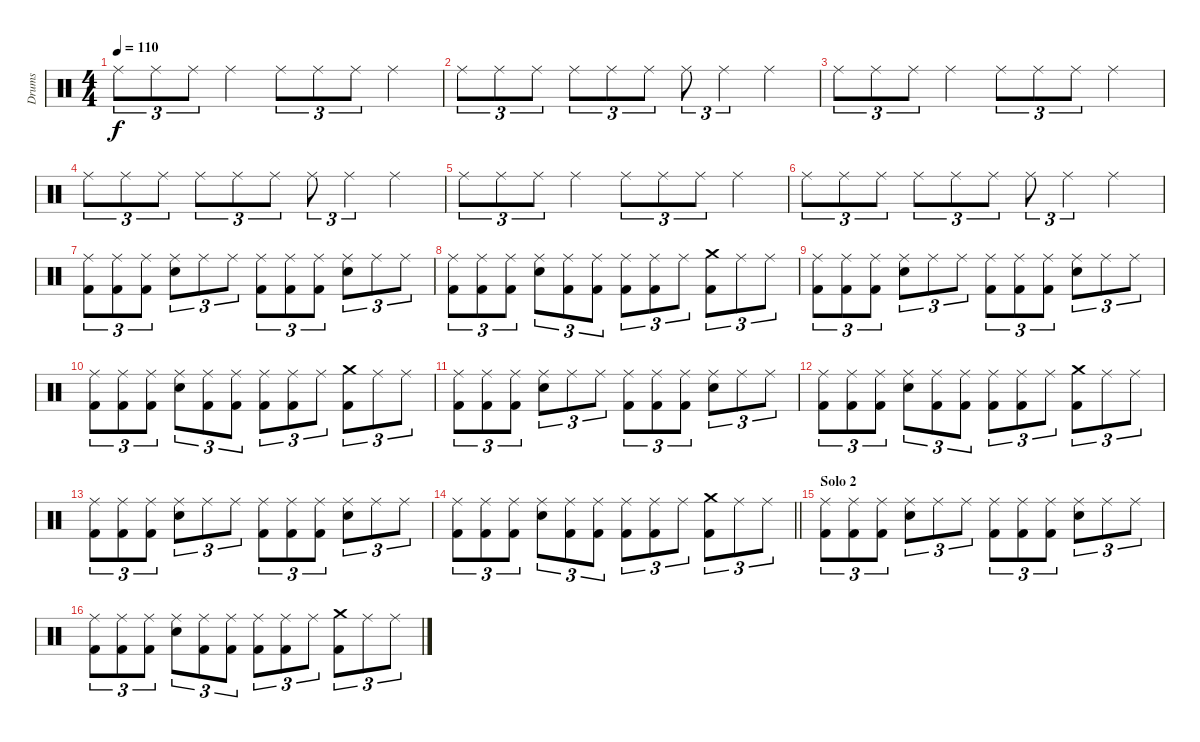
\track ("Drums" "Drums") {instrument percussion}
\staff {score}
\articulation defaults
\ts (4 4)
\tempo 110
\clef neutral
\ks c "Ride (middle)".8{tu (3 2) dy f} "Ride (middle)".8{tu (3 2)} "Ride (middle)".8{tu (3 2)} "Ride (middle)".4 "Ride (middle)".8{tu (3 2)} "Ride (middle)".8{tu (3 2)} "Ride (middle)".8{tu (3 2)} "Ride (middle)".4
|
"Ride (middle)".8{tu (3 2)} "Ride (middle)".8{tu (3 2)} "Ride (middle)".8{tu (3 2)} "Ride (middle)".8{tu (3 2)} "Ride (middle)".8{tu (3 2)} "Ride (middle)".8{tu (3 2)} "Ride (middle)".8{tu (3 2)} "Ride (middle)".4{tu (3 2)} "Ride (middle)".4 |
"Ride (middle)".8{tu (3 2)} "Ride (middle)".8{tu (3 2)} "Ride (middle)".8{tu (3 2)} "Ride (middle)".4 "Ride (middle)".8{tu (3 2)} "Ride (middle)".8{tu (3 2)} "Ride (middle)".8{tu (3 2)} "Ride (middle)".4 |
"Ride (middle)".8{tu (3 2)} "Ride (middle)".8{tu (3 2)} "Ride (middle)".8{tu (3 2)} "Ride (middle)".8{tu (3 2)} "Ride (middle)".8{tu (3 2)} "Ride (middle)".8{tu (3 2)} "Ride (middle)".8{tu (3 2)} "Ride (middle)".4{tu (3 2)} "Ride (middle)".4 |
"Ride (middle)".8{tu (3 2)} "Ride (middle)".8{tu (3 2)} "Ride (middle)".8{tu (3 2)} "Ride (middle)".4 "Ride (middle)".8{tu (3 2)} "Ride (middle)".8{tu (3 2)} "Ride (middle)".8{tu (3 2)} "Ride (middle)".4 |
"Ride (middle)".8{tu (3 2)} "Ride (middle)".8{tu (3 2)} "Ride (middle)".8{tu (3 2)} "Ride (middle)".8{tu (3 2)} "Ride (middle)".8{tu (3 2)} "Ride (middle)".8{tu (3 2)} "Ride (middle)".8{tu (3 2)} "Ride (middle)".4{tu (3 2)} "Ride (middle)".4 |
("Ride (middle)" "Kick (hit) 2").8{tu (3 2)} ("Ride (middle)" "Kick (hit) 2").8{tu (3 2)} ("Ride (middle)" "Kick (hit) 2").8{tu (3 2)} ("Ride (middle)" "Electric Snare (hit)").8{tu (3 2)} "Ride (middle)".8{tu (3 2)} "Ride (middle)".8{tu (3 2)} ("Ride (middle)" "Kick (hit) 2").8{tu (3 2)} ("Ride (middle)" "Kick (hit) 2").8{tu (3 2)} ("Ride (middle)" "Kick (hit) 2").8{tu (3 2)} ("Ride (middle)" "Electric Snare (hit)").8{tu (3 2)} "Ride (middle)".8{tu (3 2)} "Ride (middle)".8{tu (3 2)} |
("Ride (middle)" "Kick (hit) 2").8{tu (3 2)} ("Ride (middle)" "Kick (hit) 2").8{tu (3 2)} ("Ride (middle)" "Kick (hit) 2").8{tu (3 2)} ("Ride (middle)" "Electric Snare (hit)").8{tu (3 2)} ("Ride (middle)" "Kick (hit) 2").8{tu (3 2)} ("Ride (middle)" "Kick (hit) 2").8{tu (3 2)} ("Ride (middle)" "Kick (hit) 2").8{tu (3 2)} ("Ride (middle)" "Kick (hit) 2").8{tu (3 2)} "Ride (middle)".8{tu (3 2)} ("Crash medium (hit)" "Kick (hit) 2").8{tu (3 2)} "Ride (middle)".8{tu (3 2)} "Ride (middle)".8{tu (3 2)} |
("Ride (middle)" "Kick (hit) 2").8{tu (3 2)} ("Ride (middle)" "Kick (hit) 2").8{tu (3 2)} ("Ride (middle)" "Kick (hit) 2").8{tu (3 2)} ("Ride (middle)" "Electric Snare (hit)").8{tu (3 2)} "Ride (middle)".8{tu (3 2)} "Ride (middle)".8{tu (3 2)} ("Ride (middle)" "Kick (hit) 2").8{tu (3 2)} ("Ride (middle)" "Kick (hit) 2").8{tu (3 2)} ("Ride (middle)" "Kick (hit) 2").8{tu (3 2)} ("Ride (middle)" "Electric Snare (hit)").8{tu (3 2)} "Ride (middle)".8{tu (3 2)} "Ride (middle)".8{tu (3 2)} |
("Ride (middle)" "Kick (hit) 2").8{tu (3 2)} ("Ride (middle)" "Kick (hit) 2").8{tu (3 2)} ("Ride (middle)" "Kick (hit) 2").8{tu (3 2)} ("Ride (middle)" "Electric Snare (hit)").8{tu (3 2)} ("Ride (middle)" "Kick (hit) 2").8{tu (3 2)} ("Ride (middle)" "Kick (hit) 2").8{tu (3 2)} ("Ride (middle)" "Kick (hit) 2").8{tu (3 2)} ("Ride (middle)" "Kick (hit) 2").8{tu (3 2)} "Ride (middle)".8{tu (3 2)} ("Crash medium (hit)" "Kick (hit) 2").8{tu (3 2)} "Ride (middle)".8{tu (3 2)} "Ride (middle)".8{tu (3 2)} |
("Ride (middle)" "Kick (hit) 2").8{tu (3 2)} ("Ride (middle)" "Kick (hit) 2").8{tu (3 2)} ("Ride (middle)" "Kick (hit) 2").8{tu (3 2)} ("Ride (middle)" "Electric Snare (hit)").8{tu (3 2)} "Ride (middle)".8{tu (3 2)} "Ride (middle)".8{tu (3 2)} ("Ride (middle)" "Kick (hit) 2").8{tu (3 2)} ("Ride (middle)" "Kick (hit) 2").8{tu (3 2)} ("Ride (middle)" "Kick (hit) 2").8{tu (3 2)} ("Ride (middle)" "Electric Snare (hit)").8{tu (3 2)} "Ride (middle)".8{tu (3 2)} "Ride (middle)".8{tu (3 2)} |
("Ride (middle)" "Kick (hit) 2").8{tu (3 2)} ("Ride (middle)" "Kick (hit) 2").8{tu (3 2)} ("Ride (middle)" "Kick (hit) 2").8{tu (3 2)} ("Ride (middle)" "Electric Snare (hit)").8{tu (3 2)} ("Ride (middle)" "Kick (hit) 2").8{tu (3 2)} ("Ride (middle)" "Kick (hit) 2").8{tu (3 2)} ("Ride (middle)" "Kick (hit) 2").8{tu (3 2)} ("Ride (middle)" "Kick (hit) 2").8{tu (3 2)} "Ride (middle)".8{tu (3 2)} ("Crash medium (hit)" "Kick (hit) 2").8{tu (3 2)} "Ride (middle)".8{tu (3 2)} "Ride (middle)".8{tu (3 2)} |
("Ride (middle)" "Kick (hit) 2").8{tu (3 2)} ("Ride (middle)" "Kick (hit) 2").8{tu (3 2)} ("Ride (middle)" "Kick (hit) 2").8{tu (3 2)} ("Ride (middle)" "Electric Snare (hit)").8{tu (3 2)} "Ride (middle)".8{tu (3 2)} "Ride (middle)".8{tu (3 2)} ("Ride (middle)" "Kick (hit) 2").8{tu (3 2)} ("Ride (middle)" "Kick (hit) 2").8{tu (3 2)} ("Ride (middle)" "Kick (hit) 2").8{tu (3 2)} ("Ride (middle)" "Electric Snare (hit)").8{tu (3 2)} "Ride (middle)".8{tu (3 2)} "Ride (middle)".8{tu (3 2)} |
\barLineRight lightlight
("Ride (middle)" "Kick (hit) 2").8{tu (3 2)} ("Ride (middle)" "Kick (hit) 2").8{tu (3 2)} ("Ride (middle)" "Kick (hit) 2").8{tu (3 2)} ("Ride (middle)" "Electric Snare (hit)").8{tu (3 2)} ("Ride (middle)" "Kick (hit) 2").8{tu (3 2)} ("Ride (middle)" "Kick (hit) 2").8{tu (3 2)} ("Ride (middle)" "Kick (hit) 2").8{tu (3 2)} ("Ride (middle)" "Kick (hit) 2").8{tu (3 2)} "Ride (middle)".8{tu (3 2)} ("Crash medium (hit)" "Kick (hit) 2").8{tu (3 2)} "Ride (middle)".8{tu (3 2)} "Ride (middle)".8{tu (3 2)} |
\section ("" "Solo 2")
("Ride (middle)" "Kick (hit) 2").8{tu (3 2)} ("Ride (middle)" "Kick (hit) 2").8{tu (3 2)} ("Ride (middle)" "Kick (hit) 2").8{tu (3 2)} ("Ride (middle)" "Electric Snare (hit)").8{tu (3 2)} "Ride (middle)".8{tu (3 2)} "Ride (middle)".8{tu (3 2)} ("Ride (middle)" "Kick (hit) 2").8{tu (3 2)} ("Ride (middle)" "Kick (hit) 2").8{tu (3 2)} ("Ride (middle)" "Kick (hit) 2").8{tu (3 2)} ("Ride (middle)" "Electric Snare (hit)").8{tu (3 2)} "Ride (middle)".8{tu (3 2)} "Ride (middle)".8{tu (3 2)} |
("Ride (middle)" "Kick (hit) 2").8{tu (3 2)} ("Ride (middle)" "Kick (hit) 2").8{tu (3 2)} ("Ride (middle)" "Kick (hit) 2").8{tu (3 2)} ("Ride (middle)" "Electric Snare (hit)").8{tu (3 2)} ("Ride (middle)" "Kick (hit) 2").8{tu (3 2)} ("Ride (middle)" "Kick (hit) 2").8{tu (3 2)} ("Ride (middle)" "Kick (hit) 2").8{tu (3 2)} ("Ride (middle)" "Kick (hit) 2").8{tu (3 2)} "Ride (middle)".8{tu (3 2)} ("Crash medium (hit)" "Kick (hit) 2").8{tu (3 2)} "Ride (middle)".8{tu (3 2)} "Ride (middle)".8{tu (3 2)}
